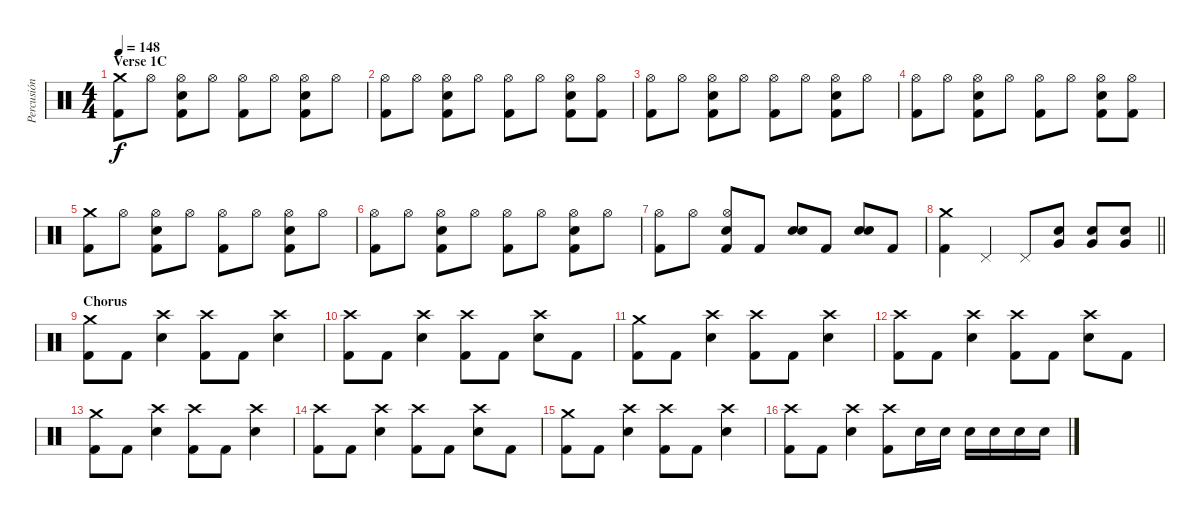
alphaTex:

\track ("Percusión" "Percusión") {instrument percussion}
\staff {score}
\articulation defaults
\ts (4 4)
\section ("" "Verse 1C")
\tempo 148
\clef neutral
\ks c
("Crash medium (hit)" "Kick (hit) 2").8{dy f} "Hi-Hat (open)".8 ("Hi-Hat (open)" "Electric Snare (hit)" "Kick (hit) 2").8 "Hi-Hat (open)".8 ("Hi-Hat (open)" "Kick (hit) 2").8 "Hi-Hat (open)".8 ("Hi-Hat (open)" "Electric Snare (hit)" "Kick (hit) 2").8 "Hi-Hat (open)".8 |
("Hi-Hat (open)" "Kick (hit) 2").8 "Hi-Hat (open)".8 ("Hi-Hat (open)" "Electric Snare (hit)" "Kick (hit) 2").8 "Hi-Hat (open)".8 ("Hi-Hat (open)" "Kick (hit) 2").8 "Hi-Hat (open)".8 ("Hi-Hat (open)" "Electric Snare (hit)" "Kick (hit) 2").8 ("Hi-Hat (open)" "Kick (hit) 2").8 |
("Hi-Hat (open)" "Kick (hit) 2").8 "Hi-Hat (open)".8 ("Hi-Hat (open)" "Electric Snare (hit)" "Kick (hit) 2").8 "Hi-Hat (open)".8 ("Hi-Hat (open)" "Kick (hit) 2").8 "Hi-Hat (open)".8 ("Hi-Hat (open)" "Electric Snare (hit)" "Kick (hit) 2").8 "Hi-Hat (open)".8 |
("Hi-Hat (open)" "Kick (hit) 2").8 "Hi-Hat (open)".8 ("Hi-Hat (open)" "Electric Snare (hit)" "Kick (hit) 2").8 "Hi-Hat (open)".8 ("Hi-Hat (open)" "Kick (hit) 2").8 "Hi-Hat (open)".8 ("Hi-Hat (open)" "Electric Snare (hit)" "Kick (hit) 2").8 ("Hi-Hat (open)" "Kick (hit) 2").8 |
("Crash medium (hit)" "Kick (hit) 2").8 "Hi-Hat (open)".8 ("Hi-Hat (open)" "Electric Snare (hit)" "Kick (hit) 2").8 "Hi-Hat (open)".8 ("Hi-Hat (open)" "Kick (hit) 2").8 "Hi-Hat (open)".8 ("Hi-Hat (open)" "Electric Snare (hit)" "Kick (hit) 2").8 "Hi-Hat (open)".8 |
("Hi-Hat (open)" "Kick (hit) 2").8 "Hi-Hat (open)".8 ("Hi-Hat (open)" "Electric Snare (hit)" "Kick (hit) 2").8 "Hi-Hat (open)".8 ("Hi-Hat (open)" "Kick (hit) 2").8 "Hi-Hat (open)".8 ("Hi-Hat (open)" "Electric Snare (hit)" "Kick (hit) 2").8 "Hi-Hat (open)".8 |
("Hi-Hat (open)" "Kick (hit) 2").8 "Hi-Hat (open)".8 ("Hi-Hat (open)" "Electric Snare (hit)" "Kick (hit) 2").8 "Kick (hit) 2".8 ("Electric Snare (hit)" "Electric Snare (hit)").8{bd 120} "Kick (hit) 2".8 ("Electric Snare (hit)" "Electric Snare (hit)").8{bd 120} "Kick (hit) 2".8 |
\barLineRight lightlight
("Crash medium (hit)" "Kick (hit) 2").4 "Pedal Hi-Hat (hit)".4 "Pedal Hi-Hat (hit)".8 ("Very Low Tom (hit)" "Electric Snare (hit)").8 ("Very Low Tom (hit)" "Electric Snare (hit)").8 ("Very Low Tom (hit)" "Electric Snare (hit)").8 |
\section ("" "Chorus")
("Crash medium (hit)" "Kick (hit) 2").8 "Kick (hit) 2".8 ("Crash high (hit)" "Electric Snare (hit)").4 ("Crash high (hit)" "Kick (hit) 2").8 "Kick (hit) 2".8 ("Crash high (hit)" "Electric Snare (hit)").4 |
("Crash high (hit)" "Kick (hit) 2").8 "Kick (hit) 2".8 ("Crash high (hit)" "Electric Snare (hit)").4 ("Crash high (hit)" "Kick (hit) 2").8 "Kick (hit) 2".8 ("Crash high (hit)" "Electric Snare (hit)").8 "Kick (hit) 2".8 |
("Crash medium (hit)" "Kick (hit) 2").8 "Kick (hit) 2".8 ("Crash high (hit)" "Electric Snare (hit)").4 ("Crash high (hit)" "Kick (hit) 2").8 "Kick (hit) 2".8 ("Crash high (hit)" "Electric Snare (hit)").4 |
("Crash high (hit)" "Kick (hit) 2").8 "Kick (hit) 2".8 ("Crash high (hit)" "Electric Snare (hit)").4 ("Crash high (hit)" "Kick (hit) 2").8 "Kick (hit) 2".8 ("Crash high (hit)" "Electric Snare (hit)").8 "Kick (hit) 2".8 |
("Crash medium (hit)" "Kick (hit) 2").8 "Kick (hit) 2".8 ("Crash high (hit)" "Electric Snare (hit)").4 ("Crash high (hit)" "Kick (hit) 2").8 "Kick (hit) 2".8 ("Crash high (hit)" "Electric Snare (hit)").4 |
("Crash high (hit)" "Kick (hit) 2").8 "Kick (hit) 2".8 ("Crash high (hit)" "Electric Snare (hit)").4 ("Crash high (hit)" "Kick (hit) 2").8 "Kick (hit) 2".8 ("Crash high (hit)" "Electric Snare (hit)").8 "Kick (hit) 2".8 |
("Crash medium (hit)" "Kick (hit) 2").8 "Kick (hit) 2".8 ("Crash high (hit)" "Electric Snare (hit)").4 ("Crash high (hit)" "Kick (hit) 2").8 "Kick (hit) 2".8 ("Crash high (hit)" "Electric Snare (hit)").4 |
("Crash high (hit)" "Kick (hit) 2").8 "Kick (hit) 2".8 ("Crash high (hit)" "Electric Snare (hit)").4 ("Crash high (hit)" "Kick (hit) 2").8 "Electric Snare (hit)".16 "Electric Snare (hit)".16 "Electric Snare (hit)".16 "Electric Snare (hit)".16 "Electric Snare (hit)".16 "Electric Snare (hit)".16
